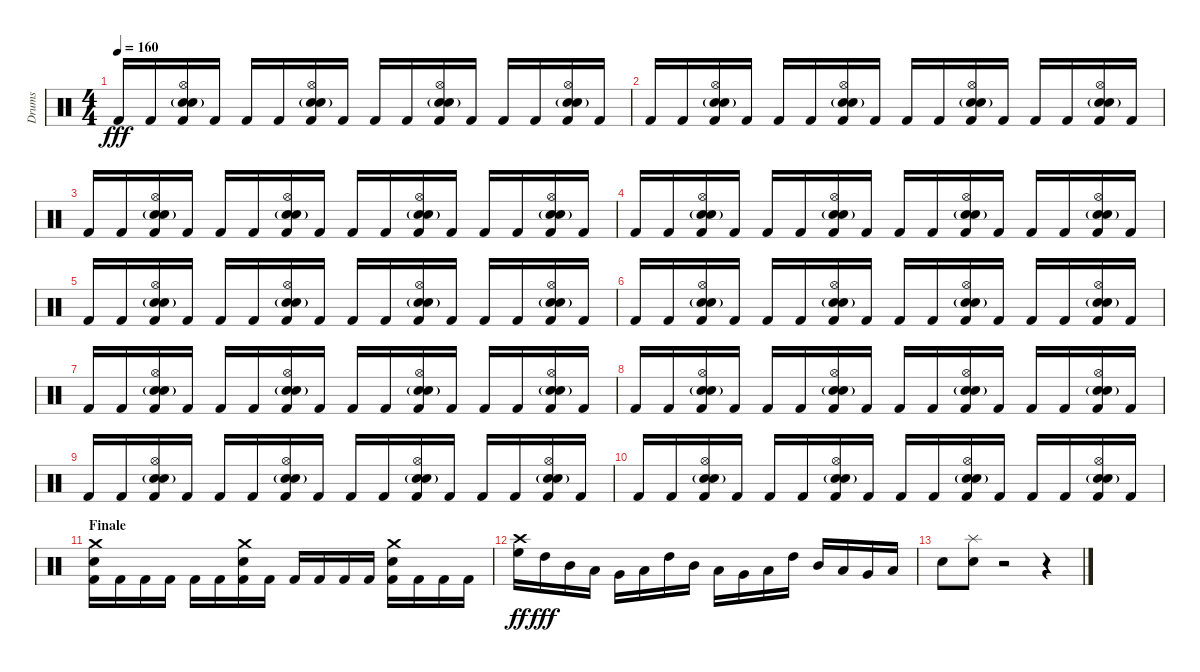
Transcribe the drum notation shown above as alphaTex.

\track ("Drums" "Drums") {instrument percussion}
\staff {score}
\articulation defaults
\ts (4 4)
\tempo 160
\clef neutral
\ks c "Kick (hit) 2".16{dy fff} "Kick (hit) 2".16
("Hi-Hat (open)" "Snare (hit) 2"{g} "Electric Snare (hit)" "Kick (hit) 2").16 "Kick (hit) 2".16 "Kick (hit) 2".16 "Kick (hit) 2".16 ("Hi-Hat (open)" "Snare (hit) 2"{g} "Electric Snare (hit)" "Kick (hit) 2").16 "Kick (hit) 2".16 "Kick (hit) 2".16 "Kick (hit) 2".16 ("Hi-Hat (open)" "Snare (hit) 2"{g} "Electric Snare (hit)" "Kick (hit) 2").16 "Kick (hit) 2".16 "Kick (hit) 2".16 "Kick (hit) 2".16 ("Hi-Hat (open)" "Snare (hit) 2"{g} "Electric Snare (hit)" "Kick (hit) 2").16 "Kick (hit) 2".16 |
"Kick (hit) 2".16 "Kick (hit) 2".16 ("Hi-Hat (open)" "Snare (hit) 2"{g} "Electric Snare (hit)" "Kick (hit) 2").16 "Kick (hit) 2".16 "Kick (hit) 2".16 "Kick (hit) 2".16 ("Hi-Hat (open)" "Snare (hit) 2"{g} "Electric Snare (hit)" "Kick (hit) 2").16 "Kick (hit) 2".16 "Kick (hit) 2".16 "Kick (hit) 2".16 ("Hi-Hat (open)" "Snare (hit) 2"{g} "Electric Snare (hit)" "Kick (hit) 2").16 "Kick (hit) 2".16 "Kick (hit) 2".16 "Kick (hit) 2".16 ("Hi-Hat (open)" "Snare (hit) 2"{g} "Electric Snare (hit)" "Kick (hit) 2").16 "Kick (hit) 2".16 |
"Kick (hit) 2".16 "Kick (hit) 2".16 ("Hi-Hat (open)" "Snare (hit) 2"{g} "Electric Snare (hit)" "Kick (hit) 2").16 "Kick (hit) 2".16 "Kick (hit) 2".16 "Kick (hit) 2".16 ("Hi-Hat (open)" "Snare (hit) 2"{g} "Electric Snare (hit)" "Kick (hit) 2").16 "Kick (hit) 2".16 "Kick (hit) 2".16 "Kick (hit) 2".16 ("Hi-Hat (open)" "Snare (hit) 2"{g} "Electric Snare (hit)" "Kick (hit) 2").16 "Kick (hit) 2".16 "Kick (hit) 2".16 "Kick (hit) 2".16 ("Hi-Hat (open)" "Snare (hit) 2"{g} "Electric Snare (hit)" "Kick (hit) 2").16 "Kick (hit) 2".16 |
"Kick (hit) 2".16 "Kick (hit) 2".16 ("Hi-Hat (open)" "Snare (hit) 2"{g} "Electric Snare (hit)" "Kick (hit) 2").16 "Kick (hit) 2".16 "Kick (hit) 2".16 "Kick (hit) 2".16 ("Hi-Hat (open)" "Snare (hit) 2"{g} "Electric Snare (hit)" "Kick (hit) 2").16 "Kick (hit) 2".16 "Kick (hit) 2".16 "Kick (hit) 2".16 ("Hi-Hat (open)" "Snare (hit) 2"{g} "Electric Snare (hit)" "Kick (hit) 2").16 "Kick (hit) 2".16 "Kick (hit) 2".16 "Kick (hit) 2".16 ("Hi-Hat (open)" "Snare (hit) 2"{g} "Electric Snare (hit)" "Kick (hit) 2").16 "Kick (hit) 2".16 |
"Kick (hit) 2".16 "Kick (hit) 2".16 ("Hi-Hat (open)" "Snare (hit) 2"{g} "Electric Snare (hit)" "Kick (hit) 2").16 "Kick (hit) 2".16 "Kick (hit) 2".16 "Kick (hit) 2".16 ("Hi-Hat (open)" "Snare (hit) 2"{g} "Electric Snare (hit)" "Kick (hit) 2").16 "Kick (hit) 2".16 "Kick (hit) 2".16 "Kick (hit) 2".16 ("Hi-Hat (open)" "Snare (hit) 2"{g} "Electric Snare (hit)" "Kick (hit) 2").16 "Kick (hit) 2".16 "Kick (hit) 2".16 "Kick (hit) 2".16 ("Hi-Hat (open)" "Snare (hit) 2"{g} "Electric Snare (hit)" "Kick (hit) 2").16 "Kick (hit) 2".16 |
"Kick (hit) 2".16 "Kick (hit) 2".16 ("Hi-Hat (open)" "Snare (hit) 2"{g} "Electric Snare (hit)" "Kick (hit) 2").16 "Kick (hit) 2".16 "Kick (hit) 2".16 "Kick (hit) 2".16 ("Hi-Hat (open)" "Snare (hit) 2"{g} "Electric Snare (hit)" "Kick (hit) 2").16 "Kick (hit) 2".16 "Kick (hit) 2".16 "Kick (hit) 2".16 ("Hi-Hat (open)" "Snare (hit) 2"{g} "Electric Snare (hit)" "Kick (hit) 2").16 "Kick (hit) 2".16 "Kick (hit) 2".16 "Kick (hit) 2".16 ("Hi-Hat (open)" "Snare (hit) 2"{g} "Electric Snare (hit)" "Kick (hit) 2").16 "Kick (hit) 2".16 |
"Kick (hit) 2".16 "Kick (hit) 2".16 ("Hi-Hat (open)" "Snare (hit) 2"{g} "Electric Snare (hit)" "Kick (hit) 2").16 "Kick (hit) 2".16 "Kick (hit) 2".16 "Kick (hit) 2".16 ("Hi-Hat (open)" "Snare (hit) 2"{g} "Electric Snare (hit)" "Kick (hit) 2").16 "Kick (hit) 2".16 "Kick (hit) 2".16 "Kick (hit) 2".16 ("Hi-Hat (open)" "Snare (hit) 2"{g} "Electric Snare (hit)" "Kick (hit) 2").16 "Kick (hit) 2".16 "Kick (hit) 2".16 "Kick (hit) 2".16 ("Hi-Hat (open)" "Snare (hit) 2"{g} "Electric Snare (hit)" "Kick (hit) 2").16 "Kick (hit) 2".16 |
"Kick (hit) 2".16 "Kick (hit) 2".16 ("Hi-Hat (open)" "Snare (hit) 2"{g} "Electric Snare (hit)" "Kick (hit) 2").16 "Kick (hit) 2".16 "Kick (hit) 2".16 "Kick (hit) 2".16 ("Hi-Hat (open)" "Snare (hit) 2"{g} "Electric Snare (hit)" "Kick (hit) 2").16 "Kick (hit) 2".16 "Kick (hit) 2".16 "Kick (hit) 2".16 ("Hi-Hat (open)" "Snare (hit) 2"{g} "Electric Snare (hit)" "Kick (hit) 2").16 "Kick (hit) 2".16 "Kick (hit) 2".16 "Kick (hit) 2".16 ("Hi-Hat (open)" "Snare (hit) 2"{g} "Electric Snare (hit)" "Kick (hit) 2").16 "Kick (hit) 2".16 |
"Kick (hit) 2".16 "Kick (hit) 2".16 ("Hi-Hat (open)" "Snare (hit) 2"{g} "Electric Snare (hit)" "Kick (hit) 2").16 "Kick (hit) 2".16 "Kick (hit) 2".16 "Kick (hit) 2".16 ("Hi-Hat (open)" "Snare (hit) 2"{g} "Electric Snare (hit)" "Kick (hit) 2").16 "Kick (hit) 2".16 "Kick (hit) 2".16 "Kick (hit) 2".16 ("Hi-Hat (open)" "Snare (hit) 2"{g} "Electric Snare (hit)" "Kick (hit) 2").16 "Kick (hit) 2".16 "Kick (hit) 2".16 "Kick (hit) 2".16 ("Hi-Hat (open)" "Snare (hit) 2"{g} "Electric Snare (hit)" "Kick (hit) 2").16 "Kick (hit) 2".16 |
"Kick (hit) 2".16 "Kick (hit) 2".16 ("Hi-Hat (open)" "Snare (hit) 2"{g} "Electric Snare (hit)" "Kick (hit) 2").16 "Kick (hit) 2".16 "Kick (hit) 2".16 "Kick (hit) 2".16 ("Hi-Hat (open)" "Snare (hit) 2"{g} "Electric Snare (hit)" "Kick (hit) 2").16 "Kick (hit) 2".16 "Kick (hit) 2".16 "Kick (hit) 2".16 ("Hi-Hat (open)" "Snare (hit) 2"{g} "Electric Snare (hit)" "Kick (hit) 2").16 "Kick (hit) 2".16 "Kick (hit) 2".16 "Kick (hit) 2".16 ("Hi-Hat (open)" "Snare (hit) 2"{g} "Electric Snare (hit)" "Kick (hit) 2").16 "Kick (hit) 2".16 |
\section ("" "Finale")
("Crash medium (hit)" "Snare (hit) 2" "Kick (hit) 2").16 "Kick (hit) 2".16 "Kick (hit) 2".16 "Kick (hit) 2".16 "Kick (hit) 2".16 "Kick (hit) 2".16 ("Crash medium (hit)" "Snare (hit) 2" "Kick (hit) 2").16 "Kick (hit) 2".16 "Kick (hit) 2".16 "Kick (hit) 2".16 "Kick (hit) 2".16 "Kick (hit) 2".16 ("Crash medium (hit)" "Snare (hit) 2" "Kick (hit) 2").16 "Kick (hit) 2".16 "Kick (hit) 2".16 "Kick (hit) 2".16 |
("Crash high (hit)" "High Floor Tom (hit)").16{dy ff} "High Tom (hit)".16{dy fff} "Mid Tom (hit)".16 "Low Tom (hit)".16 "Very Low Tom (hit)".16 "Low Floor Tom (hit)".16 "High Tom (hit)".16 "Mid Tom (hit)".16 "Low Tom (hit)".16 "Very Low Tom (hit)".16 "Low Floor Tom (hit)".16 "High Tom (hit)".16 "Mid Tom (hit)".16 "Low Tom (hit)".16 "Very Low Tom (hit)".16 "Low Floor Tom (hit)".16 |
"Snare (hit) 2".8 ("Splash (hit)" "Snare (hit) 2").8 r.2 r.4
